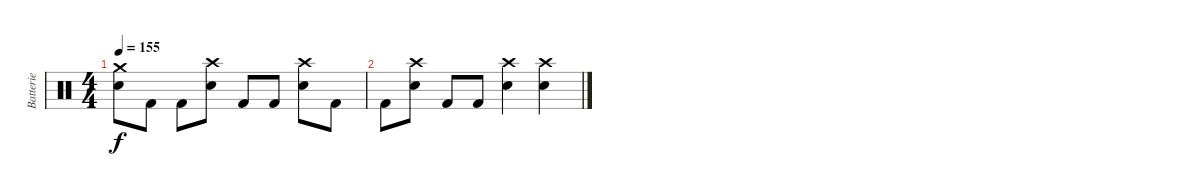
\track ("Batterie" "Batterie") {instrument percussion}
\staff {score}
\articulation defaults
\ts (4 4)
\tempo 155
\clef neutral
\ks c
("Crash medium (hit)" "Electric Snare (hit)").8{dy f} "Kick (hit) 2".8 "Kick (hit) 2".8 ("Crash high (hit)" "Electric Snare (hit)").8 "Kick (hit) 2".8 "Kick (hit) 2".8 ("Crash high (hit)" "Electric Snare (hit)").8 "Kick (hit) 2".8 |
"Kick (hit) 2".8 ("Crash high (hit)" "Electric Snare (hit)").8 "Kick (hit) 2".8 "Kick (hit) 2".8 ("Crash high (hit)" "Electric Snare (hit)").4 ("Crash high (hit)" "Electric Snare (hit)").4
